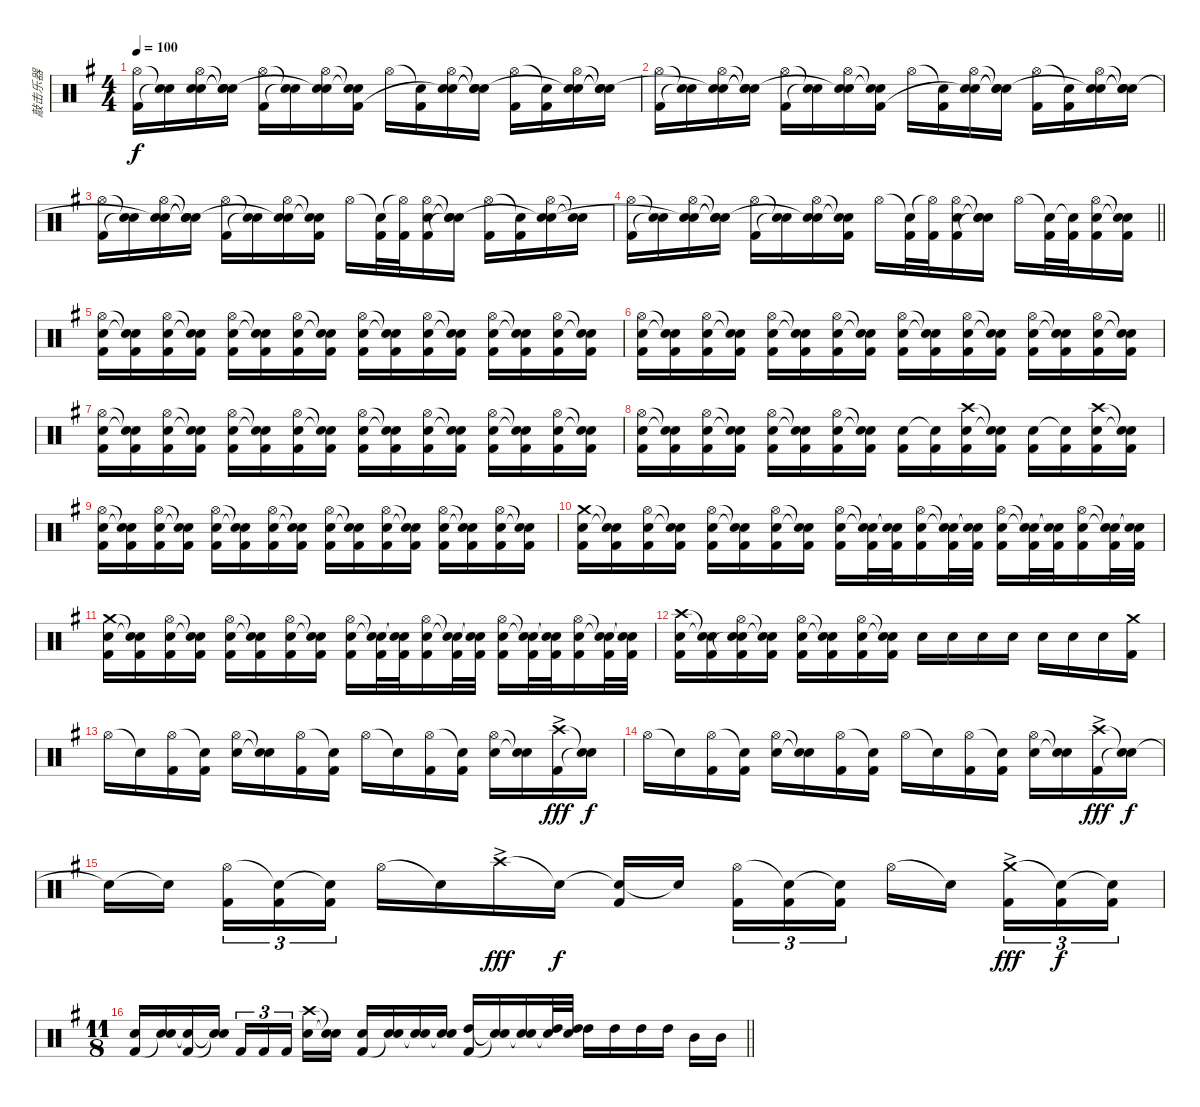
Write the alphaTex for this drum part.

\track ("敲击乐器" "敲击乐器") {instrument percussion}
\staff {score}
\articulation defaults
\ts (4 4)
\tempo 100
\clef neutral
\ks eminor
("Hi-Hat (open)" "Kick (hit) 2").16{dy f} ("Snare (hit)"{t} "Snare (hit)"{t}).16 ("Hi-Hat (open)" "Snare (hit) 2" "Snare (hit)"{t}).16 ("Snare (hit)"{t} "Snare (hit)"{t} "Snare (hit)"{t}).16 ("Hi-Hat (open)" "Kick (hit) 2").16 ("Snare (hit)"{t} "Snare (hit)"{t}).16 ("Hi-Hat (open)" "Snare (hit) 2" "Snare (hit)"{t}).16 ("Snare (hit)"{t} "Snare (hit)"{t} "Kick (hit) 2").16 "Hi-Hat (open)".16 ("Snare (hit)"{t} "Kick (hit) 2").16 ("Hi-Hat (open)" "Snare (hit) 2" "Snare (hit)"{t}).16 ("Snare (hit)"{t} "Snare (hit)"{t} "Snare (hit)"{t}).16 ("Hi-Hat (open)" "Kick (hit) 2").16 ("Snare (hit)"{t} "Kick (hit) 2").16 ("Hi-Hat (open)" "Snare (hit) 2" "Snare (hit)"{t}).16 ("Snare (hit)"{t} "Snare (hit)"{t} "Snare (hit)"{t}).16 |
("Hi-Hat (open)" "Kick (hit) 2").16 ("Snare (hit)"{t} "Snare (hit)"{t}).16 ("Hi-Hat (open)" "Snare (hit) 2" "Snare (hit)"{t}).16 ("Snare (hit)"{t} "Snare (hit)"{t} "Snare (hit)"{t}).16 ("Hi-Hat (open)" "Kick (hit) 2").16 ("Snare (hit)"{t} "Snare (hit)"{t}).16 ("Hi-Hat (open)" "Snare (hit) 2" "Snare (hit)"{t}).16 ("Snare (hit)"{t} "Snare (hit)"{t} "Kick (hit) 2").16 "Hi-Hat (open)".16 ("Snare (hit)"{t} "Kick (hit) 2").16 ("Hi-Hat (open)" "Snare (hit) 2" "Snare (hit)"{t}).16 ("Snare (hit)"{t} "Snare (hit)"{t} "Snare (hit)"{t}).16 ("Hi-Hat (open)" "Kick (hit) 2").16 ("Snare (hit)"{t} "Kick (hit) 2").16 ("Hi-Hat (open)" "Snare (hit) 2" "Snare (hit)"{t}).16 ("Snare (hit)"{t} "Snare (hit)"{t} "Snare (hit)"{t}).16 |
("Hi-Hat (open)" "Kick (hit) 2").16 ("Snare (hit)"{t} "Snare (hit)"{t}).16 ("Hi-Hat (open)" "Snare (hit) 2" "Snare (hit)"{t}).16 ("Snare (hit)"{t} "Snare (hit)"{t} "Snare (hit)"{t}).16 ("Hi-Hat (open)" "Kick (hit) 2").16 ("Snare (hit)"{t} "Snare (hit)"{t}).16 ("Hi-Hat (open)" "Snare (hit) 2" "Snare (hit)"{t}).16 ("Snare (hit)"{t} "Snare (hit)"{t} "Kick (hit) 2").16 "Hi-Hat (open)".16 ("Snare (hit)"{t} "Kick (hit) 2").32 ("Hi-Hat (open)"{t} "Kick (hit) 2").32 ("Hi-Hat (open)" "Snare (hit) 2" "Kick (hit) 2").16 ("Snare (hit)"{t} "Snare (hit)"{t} "Snare (hit)"{t}).16 ("Hi-Hat (open)" "Kick (hit) 2").16 ("Snare (hit)"{t} "Kick (hit) 2").16 ("Hi-Hat (open)" "Snare (hit) 2" "Snare (hit)"{t}).16 ("Snare (hit)"{t} "Snare (hit)"{t}).16 |
\barLineRight lightlight
("Hi-Hat (open)" "Kick (hit) 2").16 ("Snare (hit)"{t} "Snare (hit)"{t}).16 ("Hi-Hat (open)" "Snare (hit) 2" "Snare (hit)"{t}).16 ("Snare (hit)"{t} "Snare (hit)"{t} "Snare (hit)"{t}).16 ("Hi-Hat (open)" "Kick (hit) 2").16 ("Snare (hit)"{t} "Snare (hit)"{t}).16 ("Hi-Hat (open)" "Snare (hit) 2" "Snare (hit)"{t}).16 ("Snare (hit)"{t} "Snare (hit)"{t} "Kick (hit) 2").16 "Hi-Hat (open)".16 ("Snare (hit)"{t} "Kick (hit) 2").32 ("Hi-Hat (open)"{t} "Kick (hit) 2").32 ("Hi-Hat (open)" "Snare (hit) 2" "Kick (hit) 2").16 ("Snare (hit)"{t} "Snare (hit)"{t} "Snare (hit)"{t}).16 "Hi-Hat (open)".16 ("Snare (hit)"{t} "Kick (hit) 2").32 ("Snare (hit)"{t} "Kick (hit) 2").32 ("Hi-Hat (open)" "Snare (hit) 2" "Kick (hit) 2").16 ("Snare (hit)"{t} "Snare (hit)"{t} "Kick (hit) 2").16 |
("Hi-Hat (open)" "Snare (hit) 2" "Kick (hit) 2").16 ("Snare (hit)"{t} "Snare (hit)"{t} "Kick (hit) 2").16 ("Hi-Hat (open)" "Snare (hit) 2" "Kick (hit) 2").16 ("Snare (hit)"{t} "Snare (hit)"{t} "Kick (hit) 2").16 ("Hi-Hat (open)" "Snare (hit) 2" "Kick (hit) 2").16 ("Snare (hit)"{t} "Snare (hit)"{t} "Kick (hit) 2").16 ("Hi-Hat (open)" "Snare (hit) 2" "Kick (hit) 2").16 ("Snare (hit)"{t} "Snare (hit)"{t} "Kick (hit) 2").16 ("Hi-Hat (open)" "Snare (hit) 2" "Kick (hit) 2").16 ("Snare (hit)"{t} "Snare (hit)"{t} "Kick (hit) 2").16 ("Hi-Hat (open)" "Snare (hit) 2" "Kick (hit) 2").16 ("Snare (hit)"{t} "Snare (hit)"{t} "Kick (hit) 2").16 ("Hi-Hat (open)" "Snare (hit) 2" "Kick (hit) 2").16 ("Snare (hit)"{t} "Snare (hit)"{t} "Kick (hit) 2").16 ("Hi-Hat (open)" "Snare (hit) 2" "Kick (hit) 2").16 ("Snare (hit)"{t} "Snare (hit)"{t} "Kick (hit) 2").16 |
("Hi-Hat (open)" "Snare (hit) 2" "Kick (hit) 2").16 ("Snare (hit)"{t} "Snare (hit)"{t} "Kick (hit) 2").16 ("Hi-Hat (open)" "Snare (hit) 2" "Kick (hit) 2").16 ("Snare (hit)"{t} "Snare (hit)"{t} "Kick (hit) 2").16 ("Hi-Hat (open)" "Snare (hit) 2" "Kick (hit) 2").16 ("Snare (hit)"{t} "Snare (hit)"{t} "Kick (hit) 2").16 ("Hi-Hat (open)" "Snare (hit) 2" "Kick (hit) 2").16 ("Snare (hit)"{t} "Snare (hit)"{t} "Kick (hit) 2").16 ("Hi-Hat (open)" "Snare (hit) 2" "Kick (hit) 2").16 ("Snare (hit)"{t} "Snare (hit)"{t} "Kick (hit) 2").16 ("Hi-Hat (open)" "Snare (hit) 2" "Kick (hit) 2").16 ("Snare (hit)"{t} "Snare (hit)"{t} "Kick (hit) 2").16 ("Hi-Hat (open)" "Snare (hit) 2" "Kick (hit) 2").16 ("Snare (hit)"{t} "Snare (hit)"{t} "Kick (hit) 2").16 ("Hi-Hat (open)" "Snare (hit) 2" "Kick (hit) 2").16 ("Snare (hit)"{t} "Snare (hit)"{t} "Kick (hit) 2").16 |
("Hi-Hat (open)" "Snare (hit) 2" "Kick (hit) 2").16 ("Snare (hit)"{t} "Snare (hit)"{t} "Kick (hit) 2").16 ("Hi-Hat (open)" "Snare (hit) 2" "Kick (hit) 2").16 ("Snare (hit)"{t} "Snare (hit)"{t} "Kick (hit) 2").16 ("Hi-Hat (open)" "Snare (hit) 2" "Kick (hit) 2").16 ("Snare (hit)"{t} "Snare (hit)"{t} "Kick (hit) 2").16 ("Hi-Hat (open)" "Snare (hit) 2" "Kick (hit) 2").16 ("Snare (hit)"{t} "Snare (hit)"{t} "Kick (hit) 2").16 ("Hi-Hat (open)" "Snare (hit) 2" "Kick (hit) 2").16 ("Snare (hit)"{t} "Snare (hit)"{t} "Kick (hit) 2").16 ("Hi-Hat (open)" "Snare (hit) 2" "Kick (hit) 2").16 ("Snare (hit)"{t} "Snare (hit)"{t} "Kick (hit) 2").16 ("Hi-Hat (open)" "Snare (hit) 2" "Kick (hit) 2").16 ("Snare (hit)"{t} "Snare (hit)"{t} "Kick (hit) 2").16 ("Hi-Hat (open)" "Snare (hit) 2" "Kick (hit) 2").16 ("Snare (hit)"{t} "Snare (hit)"{t} "Kick (hit) 2").16 |
("Hi-Hat (open)" "Snare (hit) 2" "Kick (hit) 2").16 ("Snare (hit)"{t} "Snare (hit)"{t} "Kick (hit) 2").16 ("Hi-Hat (open)" "Snare (hit) 2" "Kick (hit) 2").16 ("Snare (hit)"{t} "Snare (hit)"{t} "Kick (hit) 2").16 ("Hi-Hat (open)" "Snare (hit) 2" "Kick (hit) 2").16 ("Snare (hit)"{t} "Snare (hit)"{t} "Kick (hit) 2").16 ("Hi-Hat (open)" "Snare (hit) 2" "Kick (hit) 2").16 ("Snare (hit)"{t} "Snare (hit)"{t} "Kick (hit) 2").16 ("Snare (hit) 2" "Kick (hit) 2").16 ("Snare (hit)"{t} "Kick (hit) 2").16 ("Crash high (hit)" "Snare (hit) 2" "Kick (hit) 2").16 ("Snare (hit)"{t} "Snare (hit)"{t} "Kick (hit) 2").16 ("Snare (hit) 2" "Kick (hit) 2").16 ("Snare (hit)"{t} "Kick (hit) 2").16 ("Crash high (hit)" "Snare (hit) 2" "Kick (hit) 2").16 ("Snare (hit)"{t} "Snare (hit)"{t} "Kick (hit) 2").16 |
("Hi-Hat (open)" "Snare (hit) 2" "Kick (hit) 2").16 ("Snare (hit)"{t} "Snare (hit)"{t} "Kick (hit) 2").16 ("Hi-Hat (open)" "Snare (hit) 2" "Kick (hit) 2").16 ("Snare (hit)"{t} "Snare (hit)"{t} "Kick (hit) 2").16 ("Hi-Hat (open)" "Snare (hit) 2" "Kick (hit) 2").16 ("Snare (hit)"{t} "Snare (hit)"{t} "Kick (hit) 2").16 ("Hi-Hat (open)" "Snare (hit) 2" "Kick (hit) 2").16 ("Snare (hit)"{t} "Snare (hit)"{t} "Kick (hit) 2").16 ("Hi-Hat (open)" "Snare (hit) 2" "Kick (hit) 2").16 ("Snare (hit)"{t} "Snare (hit)"{t} "Kick (hit) 2").16 ("Hi-Hat (open)" "Snare (hit) 2" "Kick (hit) 2").16 ("Snare (hit)"{t} "Snare (hit)"{t} "Kick (hit) 2").16 ("Hi-Hat (open)" "Snare (hit) 2" "Kick (hit) 2").16 ("Snare (hit)"{t} "Snare (hit)"{t} "Kick (hit) 2").16 ("Hi-Hat (open)" "Snare (hit) 2" "Kick (hit) 2").16 ("Snare (hit)"{t} "Snare (hit)"{t} "Kick (hit) 2").16 |
("Crash medium (hit)" "Snare (hit) 2" "Kick (hit) 2").16 ("Snare (hit)"{t} "Snare (hit)"{t} "Kick (hit) 2").16 ("Hi-Hat (open)" "Snare (hit) 2" "Kick (hit) 2").16 ("Snare (hit)"{t} "Snare (hit)"{t} "Kick (hit) 2").16 ("Hi-Hat (open)" "Snare (hit) 2" "Kick (hit) 2").16 ("Snare (hit)"{t} "Snare (hit)"{t} "Kick (hit) 2").16 ("Hi-Hat (open)" "Snare (hit) 2" "Kick (hit) 2").16 ("Snare (hit)"{t} "Snare (hit)"{t} "Kick (hit) 2").16 ("Hi-Hat (open)" "Snare (hit) 2" "Kick (hit) 2").16 ("Snare (hit)"{t} "Snare (hit)"{t} "Kick (hit) 2").32 ("Snare (hit)"{t} "Snare (hit)"{t} "Kick (hit) 2").32 ("Hi-Hat (open)" "Snare (hit) 2" "Kick (hit) 2").16 ("Snare (hit)"{t} "Snare (hit)"{t} "Kick (hit) 2").32 ("Snare (hit)"{t} "Snare (hit)"{t} "Kick (hit) 2").32 ("Hi-Hat (open)" "Snare (hit) 2" "Kick (hit) 2").16 ("Snare (hit)"{t} "Snare (hit)"{t} "Kick (hit) 2").32 ("Snare (hit)"{t} "Snare (hit)"{t} "Kick (hit) 2").32 ("Hi-Hat (open)" "Snare (hit) 2" "Kick (hit) 2").16 ("Snare (hit)"{t} "Snare (hit)"{t} "Kick (hit) 2").32 ("Snare (hit)"{t} "Snare (hit)"{t} "Kick (hit) 2").32 |
("Crash medium (hit)" "Snare (hit) 2" "Kick (hit) 2").16 ("Snare (hit)"{t} "Snare (hit)"{t} "Kick (hit) 2").16 ("Hi-Hat (open)" "Snare (hit) 2" "Kick (hit) 2").16 ("Snare (hit)"{t} "Snare (hit)"{t} "Kick (hit) 2").16 ("Hi-Hat (open)" "Snare (hit) 2" "Kick (hit) 2").16 ("Snare (hit)"{t} "Snare (hit)"{t} "Kick (hit) 2").16 ("Hi-Hat (open)" "Snare (hit) 2" "Kick (hit) 2").16 ("Snare (hit)"{t} "Snare (hit)"{t} "Kick (hit) 2").16 ("Hi-Hat (open)" "Snare (hit) 2" "Kick (hit) 2").16 ("Snare (hit)"{t} "Snare (hit)"{t} "Kick (hit) 2").32 ("Snare (hit)"{t} "Snare (hit)"{t} "Kick (hit) 2").32 ("Hi-Hat (open)" "Snare (hit) 2" "Kick (hit) 2").16 ("Snare (hit)"{t} "Snare (hit)"{t} "Kick (hit) 2").32 ("Snare (hit)"{t} "Snare (hit)"{t} "Kick (hit) 2").32 ("Hi-Hat (open)" "Snare (hit) 2" "Kick (hit) 2").16 ("Snare (hit)"{t} "Snare (hit)"{t} "Kick (hit) 2").32 ("Snare (hit)"{t} "Snare (hit)"{t} "Kick (hit) 2").32 ("Hi-Hat (open)" "Snare (hit) 2" "Kick (hit) 2").16 ("Snare (hit)"{t} "Snare (hit)"{t} "Kick (hit) 2").32 ("Snare (hit)"{t} "Snare (hit)"{t} "Kick (hit) 2").32 |
("Crash high (hit)" "Snare (hit) 2" "Kick (hit) 2").16 ("Snare (hit)"{t} "Snare (hit)"{t} "Kick (hit) 2").16 ("Hi-Hat (open)" "Snare (hit) 2" "Snare (hit)"{t} "Kick (hit) 2").16 ("Snare (hit)"{t} "Snare (hit)"{t} "Kick (hit) 2").16 ("Hi-Hat (open)" "Snare (hit) 2" "Kick (hit) 2").16 ("Snare (hit)"{t} "Snare (hit)"{t} "Kick (hit) 2").16 ("Hi-Hat (open)" "Snare (hit) 2" "Kick (hit) 2").16 ("Snare (hit)"{t} "Snare (hit)"{t} "Kick (hit) 2").16 "Snare (hit) 2".16 "Snare (hit) 2".16 "Snare (hit) 2".16 "Snare (hit) 2".16 "Snare (hit) 2".16 "Snare (hit) 2".16 "Snare (hit) 2".16 ("Crash medium (hit)" "Kick (hit) 2").16 |
"Hi-Hat (open)".16 "Snare (hit)"{t}.16 ("Hi-Hat (open)" "Kick (hit) 2").16 ("Snare (hit)"{t} "Kick (hit) 2").16 ("Hi-Hat (open)" "Snare (hit) 2").16 ("Snare (hit)"{t} "Snare (hit)"{t}).16 ("Hi-Hat (open)" "Kick (hit) 2").16 ("Snare (hit)"{t} "Kick (hit) 2").16 "Hi-Hat (open)".16 "Snare (hit)"{t}.16 ("Hi-Hat (open)" "Kick (hit) 2").16 ("Snare (hit)"{t} "Kick (hit) 2").16 ("Hi-Hat (open)" "Snare (hit) 2").16 ("Snare (hit)"{t} "Snare (hit)"{t}).16 ("Crash high (hit)"{ac} "Kick (hit) 2").16{dy fff} ("Snare (hit)"{t} "Snare (hit)"{t}).16{dy f} |
"Hi-Hat (open)".16 "Snare (hit)"{t}.16 ("Hi-Hat (open)" "Kick (hit) 2").16 ("Snare (hit)"{t} "Kick (hit) 2").16 ("Hi-Hat (open)" "Snare (hit) 2").16 ("Snare (hit)"{t} "Snare (hit)"{t}).16 ("Hi-Hat (open)" "Kick (hit) 2").16 ("Snare (hit)"{t} "Kick (hit) 2").16 "Hi-Hat (open)".16 "Snare (hit)"{t}.16 ("Hi-Hat (open)" "Kick (hit) 2").16 ("Snare (hit)"{t} "Kick (hit) 2").16 ("Hi-Hat (open)" "Snare (hit) 2").16 ("Snare (hit)"{t} "Snare (hit)"{t}).16 ("Crash high (hit)"{ac} "Kick (hit) 2").16{dy fff} ("Snare (hit)"{t} "Snare (hit)"{t}).16{dy f} |
"Snare (hit)"{t}.16 "Snare (hit)"{t}.16{beam splitsecondary} ("Hi-Hat (open)" "Kick (hit) 2").16{tu (3 2)} ("Snare (hit)"{t} "Kick (hit) 2").16{tu (3 2)} ("Snare (hit)"{t} "Kick (hit) 2").16{tu (3 2)} "Hi-Hat (open)".16 "Snare (hit)"{t}.16 "Crash high (hit)"{ac}.16{dy fff} "Snare (hit)"{t}.16{dy f} ("Snare (hit)"{t} "Kick (hit) 2").16 "Snare (hit)"{t}.16{beam splitsecondary} ("Hi-Hat (open)" "Kick (hit) 2").16{tu (3 2)} ("Snare (hit)"{t} "Kick (hit) 2").16{tu (3 2)} ("Snare (hit)"{t} "Kick (hit) 2").16{tu (3 2)} "Hi-Hat (open)".16 "Snare (hit)"{t}.16{beam splitsecondary} ("Crash medium (hit)"{ac} "Kick (hit) 2").16{tu (3 2) dy fff} ("Snare (hit)"{t} "Kick (hit) 2").16{tu (3 2) dy f} ("Snare (hit)"{t} "Kick (hit) 2").16{tu (3 2)} |
\ts (11 8)
\barLineRight lightlight
("Snare (hit) 2" "Kick (hit) 2").16 ("Snare (hit) 2" "Snare (hit)"{t}).16 ("Snare (hit)"{t} "Kick (hit) 2").16 ("Snare (hit)"{t} "Snare (hit)"{t}).16 "Kick (hit) 2".16{tu (3 2)} "Kick (hit) 2".16{tu (3 2)} "Kick (hit) 2".16{tu (3 2)} ("Crash high (hit)" "Snare (hit) 2").16 ("Snare (hit)"{t} "Snare (hit)"{t}).16 ("Snare (hit) 2" "Kick (hit) 2").16 ("Snare (hit) 2" "Snare (hit)"{t}).16 ("Snare (hit) 2" "Snare (hit)"{t}).16 ("Snare (hit) 2" "Snare (hit)"{t}).16 ("High Tom (hit)" "Kick (hit) 2").16 ("Snare (hit)"{t} "Snare (hit)"{t}).16 ("Snare (hit) 2" "Snare (hit)"{t}).16 ("High Tom (hit)" "Snare (hit)"{t}).32 ("High Tom (hit)" "Snare (hit)"{t}).32 "High Tom (hit)".16 "High Tom (hit)".16 "High Tom (hit)".16 "High Tom (hit)".16 "Mid Tom (hit)".16 "Mid Tom (hit)".16
